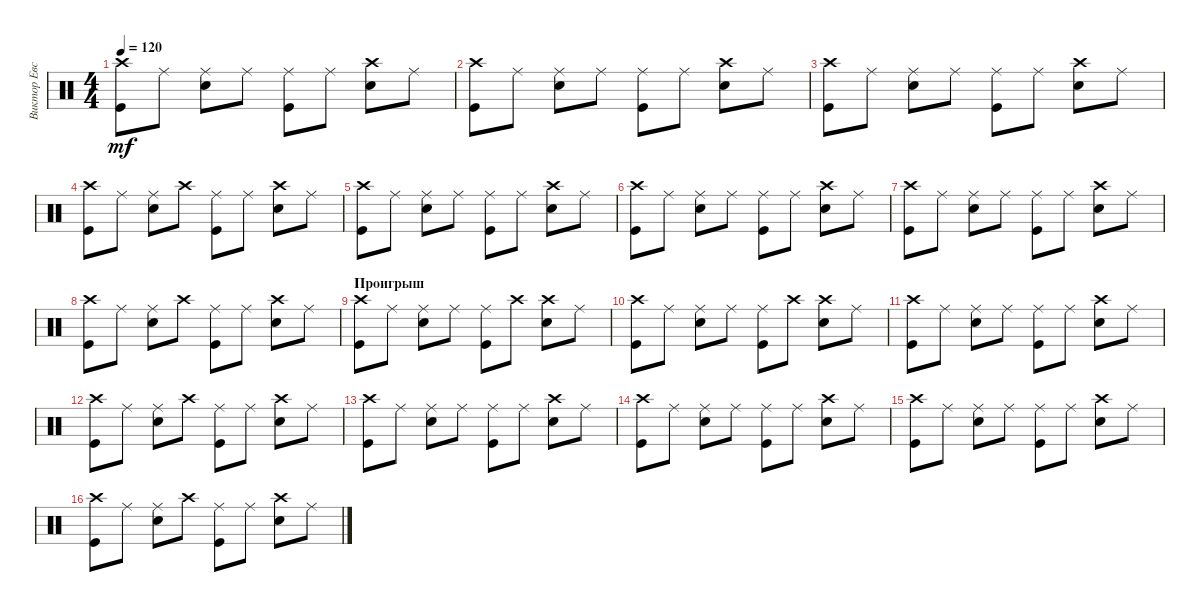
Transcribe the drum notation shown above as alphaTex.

\track ("Виктор Евстратов" "Виктор Евс") {instrument percussion}
\staff {score}
\articulation defaults
\ts (4 4)
\tempo 120
\clef neutral
\ks c
("Kick (hit)" "Crash high (hit)").8{dy mf} "Ride (middle)".8 ("Snare (hit) 2" "Ride (middle)").8 "Ride (middle)".8 ("Kick (hit)" "Ride (middle)").8 "Ride (middle)".8 ("Snare (hit) 2" "Crash high (hit)").8 "Ride (middle)".8 |
("Kick (hit)" "Crash high (hit)").8 "Ride (middle)".8 ("Snare (hit) 2" "Ride (middle)").8 "Ride (middle)".8 ("Kick (hit)" "Ride (middle)").8 "Ride (middle)".8 ("Snare (hit) 2" "Crash high (hit)").8 "Ride (middle)".8 |
("Kick (hit)" "Crash high (hit)").8 "Ride (middle)".8 ("Snare (hit) 2" "Ride (middle)").8 "Ride (middle)".8 ("Kick (hit)" "Ride (middle)").8 "Ride (middle)".8 ("Snare (hit) 2" "Crash high (hit)").8 "Ride (middle)".8 |
("Kick (hit)" "Crash high (hit)").8 "Ride (middle)".8 ("Snare (hit) 2" "Ride (middle)").8 "Crash high (hit)".8 ("Kick (hit)" "Ride (middle)").8 "Ride (middle)".8 ("Snare (hit) 2" "Crash high (hit)").8 "Ride (middle)".8 |
("Kick (hit)" "Crash high (hit)").8 "Ride (middle)".8 ("Snare (hit) 2" "Ride (middle)").8 "Ride (middle)".8 ("Kick (hit)" "Ride (middle)").8 "Ride (middle)".8 ("Snare (hit) 2" "Crash high (hit)").8 "Ride (middle)".8 |
("Kick (hit)" "Crash high (hit)").8 "Ride (middle)".8 ("Snare (hit) 2" "Ride (middle)").8 "Ride (middle)".8 ("Kick (hit)" "Ride (middle)").8 "Ride (middle)".8 ("Snare (hit) 2" "Crash high (hit)").8 "Ride (middle)".8 |
("Kick (hit)" "Crash high (hit)").8 "Ride (middle)".8 ("Snare (hit) 2" "Ride (middle)").8 "Ride (middle)".8 ("Kick (hit)" "Ride (middle)").8 "Ride (middle)".8 ("Snare (hit) 2" "Crash high (hit)").8 "Ride (middle)".8 |
("Kick (hit)" "Crash high (hit)").8 "Ride (middle)".8 ("Snare (hit) 2" "Ride (middle)").8 "Crash high (hit)".8 ("Kick (hit)" "Ride (middle)").8 "Ride (middle)".8 ("Snare (hit) 2" "Crash high (hit)").8 "Ride (middle)".8 |
\section ("" "Проигрыш")
("Kick (hit)" "Crash high (hit)").8 "Ride (middle)".8 ("Snare (hit) 2" "Ride (middle)").8 "Ride (middle)".8 ("Kick (hit)" "Ride (middle)").8 "Crash high (hit)".8 ("Snare (hit) 2" "Crash high (hit)").8 "Ride (middle)".8 |
("Kick (hit)" "Crash high (hit)").8 "Ride (middle)".8 ("Snare (hit) 2" "Ride (middle)").8 "Ride (middle)".8 ("Kick (hit)" "Ride (middle)").8 "Crash high (hit)".8 ("Snare (hit) 2" "Crash high (hit)").8 "Ride (middle)".8 |
("Kick (hit)" "Crash high (hit)").8 "Ride (middle)".8 ("Snare (hit) 2" "Ride (middle)").8 "Ride (middle)".8 ("Kick (hit)" "Ride (middle)").8 "Ride (middle)".8 ("Snare (hit) 2" "Crash high (hit)").8 "Ride (middle)".8 |
("Kick (hit)" "Crash high (hit)").8 "Ride (middle)".8 ("Snare (hit) 2" "Ride (middle)").8 "Crash high (hit)".8 ("Kick (hit)" "Ride (middle)").8 "Ride (middle)".8 ("Snare (hit) 2" "Crash high (hit)").8 "Ride (middle)".8 |
("Kick (hit)" "Crash high (hit)").8 "Ride (middle)".8 ("Snare (hit) 2" "Ride (middle)").8 "Ride (middle)".8 ("Kick (hit)" "Ride (middle)").8 "Ride (middle)".8 ("Snare (hit) 2" "Crash high (hit)").8 "Ride (middle)".8 |
("Kick (hit)" "Crash high (hit)").8 "Ride (middle)".8 ("Snare (hit) 2" "Ride (middle)").8 "Ride (middle)".8 ("Kick (hit)" "Ride (middle)").8 "Ride (middle)".8 ("Snare (hit) 2" "Crash high (hit)").8 "Ride (middle)".8 |
("Kick (hit)" "Crash high (hit)").8 "Ride (middle)".8 ("Snare (hit) 2" "Ride (middle)").8 "Ride (middle)".8 ("Kick (hit)" "Ride (middle)").8 "Ride (middle)".8 ("Snare (hit) 2" "Crash high (hit)").8 "Ride (middle)".8 |
("Kick (hit)" "Crash high (hit)").8 "Ride (middle)".8 ("Snare (hit) 2" "Ride (middle)").8 "Crash high (hit)".8 ("Kick (hit)" "Ride (middle)").8 "Ride (middle)".8 ("Snare (hit) 2" "Crash high (hit)").8 "Ride (middle)".8
